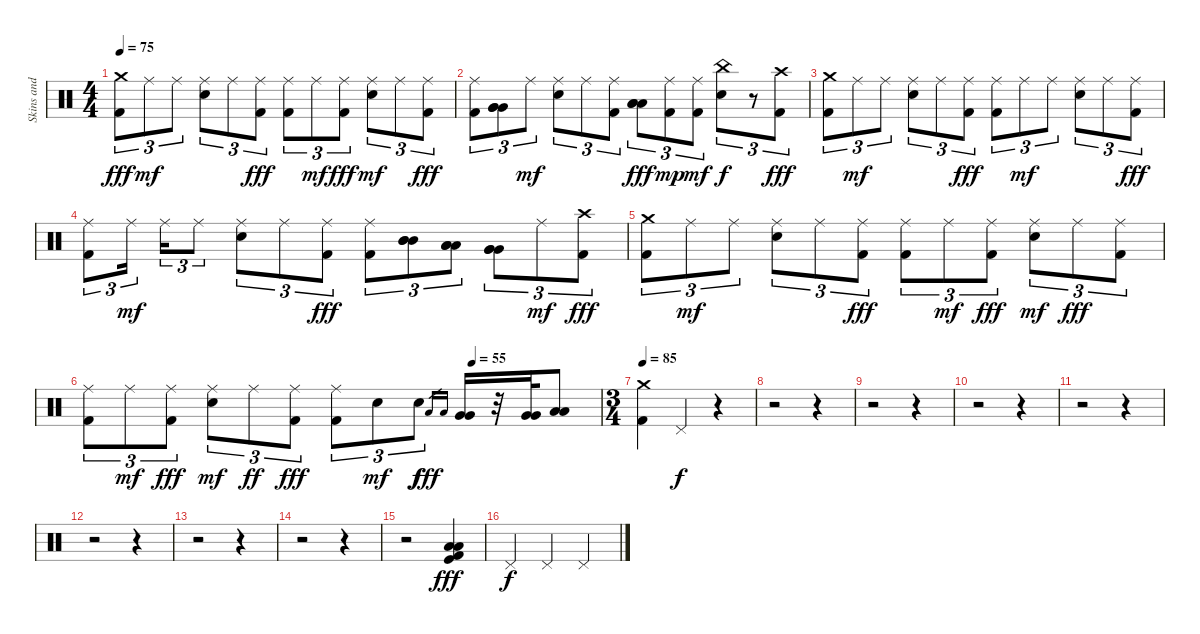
\track ("Skins and Cymbals" "Skins and ") {instrument percussion}
\staff {score}
\articulation defaults
\ts (4 4)
\tempo 75
\clef neutral
\ks c
("Crash medium (hit)" "Kick (hit) 2").8{tu (3 2) dy fff} "Ride (middle)".8{tu (3 2) dy mf} "Ride (middle)".8{tu (3 2)} ("Ride (middle)" "Electric Snare (hit)").8{tu (3 2)} "Ride (middle)".8{tu (3 2)} ("Ride (middle)" "Kick (hit) 2").8{tu (3 2) dy fff} ("Ride (middle)" "Kick (hit) 2").8{tu (3 2)} "Ride (middle)".8{tu (3 2) dy mf} ("Ride (middle)" "Kick (hit) 2").8{tu (3 2) dy fff} ("Ride (middle)" "Electric Snare (hit)").8{tu (3 2) dy mf} "Ride (middle)".8{tu (3 2)} ("Ride (middle)" "Kick (hit) 2").8{tu (3 2) dy fff} |
("Ride (middle)" "Kick (hit) 2").8{tu (3 2)} ("Very Low Tom (hit)" "Very Low Tom (hit)" "Very Low Tom (hit)").8{tu (3 2)} "Ride (middle)".8{tu (3 2) dy mf} ("Ride (middle)" "Electric Snare (hit)").8{tu (3 2)} "Ride (middle)".8{tu (3 2)} ("Ride (middle)" "Kick (hit) 2").8{tu (3 2)} ("Low Floor Tom (hit)" "Low Floor Tom (hit)" "Low Floor Tom (hit)").8{tu (3 2) dy fff} ("Ride (middle)" "Kick (hit) 2").8{tu (3 2) dy mp} ("Ride (middle)" "Kick (hit) 2").8{tu (3 2) dy mf} ("China (hit)" "Electric Snare (hit)").8{tu (3 2) dy f} r.8{tu (3 2)} ("Crash high (hit)" "Kick (hit) 2").8{tu (3 2) dy fff} |
("Crash medium (hit)" "Kick (hit) 2").8{tu (3 2)} "Ride (middle)".8{tu (3 2) dy mf} "Ride (middle)".8{tu (3 2)} ("Ride (middle)" "Electric Snare (hit)").8{tu (3 2)} "Ride (middle)".8{tu (3 2)} ("Ride (middle)" "Kick (hit) 2").8{tu (3 2) dy fff} ("Ride (middle)" "Kick (hit) 2").8{tu (3 2)} "Ride (middle)".8{tu (3 2) dy mf} "Ride (middle)".8{tu (3 2)} ("Ride (middle)" "Electric Snare (hit)").8{tu (3 2)} "Ride (middle)".8{tu (3 2)} ("Ride (middle)" "Kick (hit) 2").8{tu (3 2) dy fff} |
("Ride (middle)" "Kick (hit) 2").8{tu (3 2)} "Ride (middle)".16{tu (3 2) dy mf} "Ride (middle)".16{tu (3 2)} "Ride (middle)".8{tu (3 2)} ("Ride (middle)" "Electric Snare (hit)").8{tu (3 2)} "Ride (middle)".8{tu (3 2)} ("Ride (middle)" "Kick (hit) 2").8{tu (3 2) dy fff} ("Ride (middle)" "Kick (hit) 2").8{tu (3 2)} ("Mid Tom (hit)" "Mid Tom (hit)" "Mid Tom (hit)").8{tu (3 2)} ("Low Tom (hit)" "Low Tom (hit)" "Low Tom (hit)").8{tu (3 2)} ("Very Low Tom (hit)" "Very Low Tom (hit)" "Very Low Tom (hit)").8{tu (3 2)} "Ride (middle)".8{tu (3 2) dy mf} ("Crash high (hit)" "Kick (hit) 2").8{tu (3 2) dy fff} |
("Crash medium (hit)" "Kick (hit) 2").8{tu (3 2)} "Ride (middle)".8{tu (3 2) dy mf} "Ride (middle)".8{tu (3 2)} ("Ride (middle)" "Electric Snare (hit)").8{tu (3 2)} "Ride (middle)".8{tu (3 2)} ("Ride (middle)" "Kick (hit) 2").8{tu (3 2) dy fff} ("Ride (middle)" "Kick (hit) 2").8{tu (3 2)} "Ride (middle)".8{tu (3 2) dy mf} ("Ride (middle)" "Kick (hit) 2").8{tu (3 2) dy fff} ("Ride (middle)" "Electric Snare (hit)").8{tu (3 2) dy mf} "Ride (middle)".8{tu (3 2) dy fff} ("Ride (middle)" "Kick (hit) 2").8{tu (3 2)} |
\tempo (55 0.75)
("Ride (middle)" "Kick (hit) 2").8{tu (3 2)} "Ride (middle)".8{tu (3 2) dy mf} ("Ride (middle)" "Kick (hit) 2").8{tu (3 2) dy fff} ("Ride (middle)" "Electric Snare (hit)").8{tu (3 2) dy mf} "Ride (middle)".8{tu (3 2) dy ff} ("Ride (middle)" "Kick (hit) 2").8{tu (3 2) dy fff} ("Ride (middle)" "Kick (hit) 2").8{tu (3 2)} "Electric Snare (hit)".8{tu (3 2) dy mf} "Electric Snare (hit)".8{tu (3 2) dy f} "Low Tom (hit)".16{gr dy fff} "Low Tom (hit)".16{gr} ("Very Low Tom (hit)" "Very Low Tom (hit)").16 r.32 ("Very Low Tom (hit)" "Very Low Tom (hit)").32 ("Low Floor Tom (hit)" "Low Floor Tom (hit)").8 |
\ts (3 4)
\tempo 85
("Crash medium (hit)" "Kick (hit) 2").4 "Pedal Hi-Hat (hit)".4{dy f} r.4 |
r.2 r.4 |
r.2 r.4 |
r.2 r.4 |
r.2 r.4 |
r.2 r.4 |
r.2 r.4 |
r.2 r.4 |
r.2 ("Low Floor Tom (hit)" "Low Floor Tom (hit)" "Kick (hit) 2" "Kick (hit)").4{dy fff} |
"Pedal Hi-Hat (hit)".4{dy f} "Pedal Hi-Hat (hit)".4 "Pedal Hi-Hat (hit)".4
